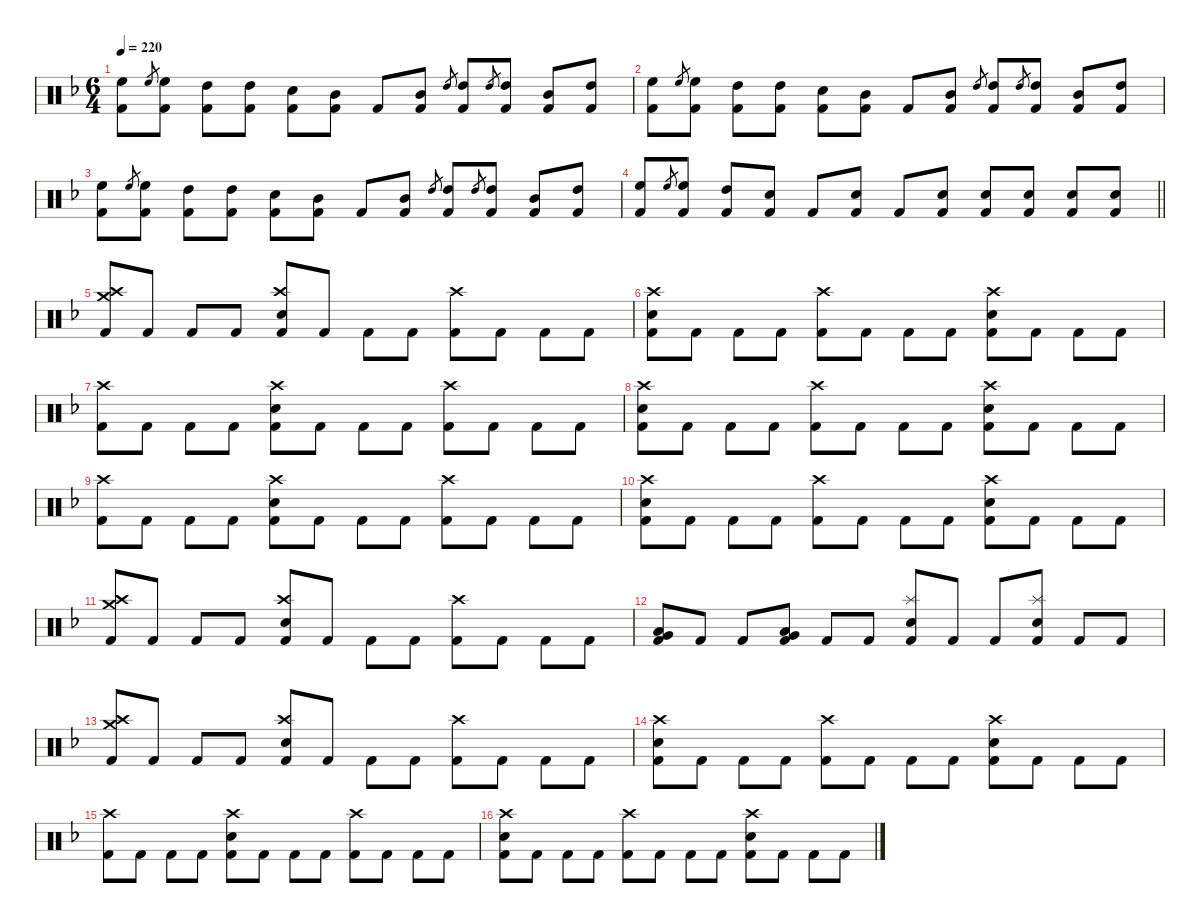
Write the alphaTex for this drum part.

\hideDynamics
\bracketExtendMode nobrackets
\singleTrackTrackNamePolicy hidden
\multiTrackTrackNamePolicy hidden
\firstSystemTrackNameMode fullname
\firstSystemTrackNameOrientation horizontal
\otherSystemsTrackNameOrientation horizontal
\track ("Drumkit" "Drums") {instrument percussion}
\staff {score}
\articulation defaults
\ts (6 4)
\tempo 220
\clef neutral
\ks dminor
("High Floor Tom (hit)"{acc forcenatural} "Kick (hit) 2"{acc forcenatural}).8{dy f beam Down} "High Floor Tom (hit)"{acc forcenatural}.8{gr dy mf beam Up} ("High Floor Tom (hit)"{acc forcenatural} "Kick (hit) 2"{acc forcenatural}).8{dy f beam Down} ("High Tom (hit)"{acc forcenatural} "Kick (hit) 2"{acc forcenatural}).8{beam Down} ("High Tom (hit)"{acc forcenatural} "Kick (hit) 2"{acc forcenatural}).8{beam Down} ("Snare (hit) 2"{acc forcenatural} "Kick (hit) 2"{acc forcenatural}).8{beam Down} ("Mid Tom (hit)"{acc forcenatural} "Kick (hit) 2"{acc forcenatural}).8{beam Down} "Kick (hit) 2"{acc forcenatural}.8{beam Up} ("Mid Tom (hit)"{acc forcenatural} "Kick (hit) 2"{acc forcenatural}).8{beam Up} "High Tom (hit)"{acc forcenatural}.8{gr dy mf beam Up} ("High Tom (hit)"{acc forcenatural} "Kick (hit) 2"{acc forcenatural}).8{dy f beam Up} "High Tom (hit)"{acc forcenatural}.8{gr dy mf beam Up} ("High Tom (hit)"{acc forcenatural} "Kick (hit) 2"{acc forcenatural}).8{dy f beam Up} ("Mid Tom (hit)"{acc forcenatural} "Kick (hit) 2"{acc forcenatural}).8{beam Up} ("High Tom (hit)"{acc forcenatural} "Kick (hit) 2"{acc forcenatural}).8{beam Up} |
("High Floor Tom (hit)"{acc forcenatural} "Kick (hit) 2"{acc forcenatural}).8{beam Down} "High Floor Tom (hit)"{acc forcenatural}.8{gr dy mf beam Up} ("High Floor Tom (hit)"{acc forcenatural} "Kick (hit) 2"{acc forcenatural}).8{dy f beam Down} ("High Tom (hit)"{acc forcenatural} "Kick (hit) 2"{acc forcenatural}).8{beam Down} ("High Tom (hit)"{acc forcenatural} "Kick (hit) 2"{acc forcenatural}).8{beam Down} ("Snare (hit) 2"{acc forcenatural} "Kick (hit) 2"{acc forcenatural}).8{beam Down} ("Mid Tom (hit)"{acc forcenatural} "Kick (hit) 2"{acc forcenatural}).8{beam Down} "Kick (hit) 2"{acc forcenatural}.8{beam Up} ("Mid Tom (hit)"{acc forcenatural} "Kick (hit) 2"{acc forcenatural}).8{beam Up} "High Tom (hit)"{acc forcenatural}.8{gr dy mf beam Up} ("High Tom (hit)"{acc forcenatural} "Kick (hit) 2"{acc forcenatural}).8{dy f beam Up} "High Tom (hit)"{acc forcenatural}.8{gr dy mf beam Up} ("High Tom (hit)"{acc forcenatural} "Kick (hit) 2"{acc forcenatural}).8{dy f beam Up} ("Mid Tom (hit)"{acc forcenatural} "Kick (hit) 2"{acc forcenatural}).8{beam Up} ("High Tom (hit)"{acc forcenatural} "Kick (hit) 2"{acc forcenatural}).8{beam Up} |
("High Floor Tom (hit)"{acc forcenatural} "Kick (hit) 2"{acc forcenatural}).8{beam Down} "High Floor Tom (hit)"{acc forcenatural}.8{gr dy mf beam Up} ("High Floor Tom (hit)"{acc forcenatural} "Kick (hit) 2"{acc forcenatural}).8{dy f beam Down} ("High Tom (hit)"{acc forcenatural} "Kick (hit) 2"{acc forcenatural}).8{beam Down} ("High Tom (hit)"{acc forcenatural} "Kick (hit) 2"{acc forcenatural}).8{beam Down} ("Snare (hit) 2"{acc forcenatural} "Kick (hit) 2"{acc forcenatural}).8{beam Down} ("Mid Tom (hit)"{acc forcenatural} "Kick (hit) 2"{acc forcenatural}).8{beam Down} "Kick (hit) 2"{acc forcenatural}.8{beam Up} ("Mid Tom (hit)"{acc forcenatural} "Kick (hit) 2"{acc forcenatural}).8{beam Up} "High Tom (hit)"{acc forcenatural}.8{gr dy mf beam Up} ("High Tom (hit)"{acc forcenatural} "Kick (hit) 2"{acc forcenatural}).8{dy f beam Up} "High Tom (hit)"{acc forcenatural}.8{gr dy mf beam Up} ("High Tom (hit)"{acc forcenatural} "Kick (hit) 2"{acc forcenatural}).8{dy f beam Up} ("Mid Tom (hit)"{acc forcenatural} "Kick (hit) 2"{acc forcenatural}).8{beam Up} ("High Tom (hit)"{acc forcenatural} "Kick (hit) 2"{acc forcenatural}).8{beam Up} |
\barLineRight lightlight
("High Floor Tom (hit)"{acc forcenatural} "Kick (hit) 2"{acc forcenatural}).8{beam Up} "High Floor Tom (hit)"{acc forcenatural}.8{gr dy mf beam Up} ("High Floor Tom (hit)"{acc forcenatural} "Kick (hit) 2"{acc forcenatural}).8{dy f beam Up} ("High Tom (hit)"{acc forcenatural} "Kick (hit) 2"{acc forcenatural}).8{beam Up} ("Snare (hit) 2"{acc forcenatural} "Kick (hit) 2"{acc forcenatural}).8{beam Up} "Kick (hit) 2"{acc forcenatural}.8{beam Up} ("Snare (hit) 2"{acc forcenatural} "Kick (hit) 2"{acc forcenatural}).8{beam Up} "Kick (hit) 2"{acc forcenatural}.8{beam Up} ("Snare (hit) 2"{acc forcenatural} "Kick (hit) 2"{acc forcenatural}).8{beam Up} ("Snare (hit) 2"{acc forcenatural} "Kick (hit) 2"{acc forcenatural}).8{beam Up} ("Snare (hit) 2"{acc forcenatural} "Kick (hit) 2"{acc forcenatural}).8{beam Up} ("Snare (hit) 2"{acc forcenatural} "Kick (hit) 2"{acc forcenatural}).8{beam Up} ("Snare (hit) 2"{acc forcenatural} "Kick (hit) 2"{acc forcenatural}).8{beam Up} |
("Crash medium (hit)"{acc forcenatural} "Crash high (hit)"{acc forcenatural} "Kick (hit) 2"{acc forcenatural}).8{beam Up} "Kick (hit) 2"{acc forcenatural}.8{beam Up} "Kick (hit) 2"{acc forcenatural}.8{beam Up} "Kick (hit) 2"{acc forcenatural}.8{beam Up} ("Crash high (hit)"{acc forcenatural} "Snare (hit) 2"{acc forcenatural} "Kick (hit) 2"{acc forcenatural}).8{beam Up} "Kick (hit) 2"{acc forcenatural}.8{beam Up} "Kick (hit) 2"{acc forcenatural}.8{beam Down} "Kick (hit) 2"{acc forcenatural}.8{beam Down} ("Crash high (hit)"{acc forcenatural} "Kick (hit) 2"{acc forcenatural}).8{beam Down} "Kick (hit) 2"{acc forcenatural}.8{beam Down} "Kick (hit) 2"{acc forcenatural}.8{beam Down} "Kick (hit) 2"{acc forcenatural}.8{beam Down} |
("Crash high (hit)"{acc forcenatural} "Snare (hit) 2"{acc forcenatural} "Kick (hit) 2"{acc forcenatural}).8{beam Down} "Kick (hit) 2"{acc forcenatural}.8{beam Down} "Kick (hit) 2"{acc forcenatural}.8{beam Down} "Kick (hit) 2"{acc forcenatural}.8{beam Down} ("Crash high (hit)"{acc forcenatural} "Kick (hit) 2"{acc forcenatural}).8{beam Down} "Kick (hit) 2"{acc forcenatural}.8{beam Down} "Kick (hit) 2"{acc forcenatural}.8{beam Down} "Kick (hit) 2"{acc forcenatural}.8{beam Down} ("Crash high (hit)"{acc forcenatural} "Snare (hit) 2"{acc forcenatural} "Kick (hit) 2"{acc forcenatural}).8{beam Down} "Kick (hit) 2"{acc forcenatural}.8{beam Down} "Kick (hit) 2"{acc forcenatural}.8{beam Down} "Kick (hit) 2"{acc forcenatural}.8{beam Down} |
("Crash high (hit)"{acc forcenatural} "Kick (hit) 2"{acc forcenatural}).8{beam Down} "Kick (hit) 2"{acc forcenatural}.8{beam Down} "Kick (hit) 2"{acc forcenatural}.8{beam Down} "Kick (hit) 2"{acc forcenatural}.8{beam Down} ("Crash high (hit)"{acc forcenatural} "Snare (hit) 2"{acc forcenatural} "Kick (hit) 2"{acc forcenatural}).8{beam Down} "Kick (hit) 2"{acc forcenatural}.8{beam Down} "Kick (hit) 2"{acc forcenatural}.8{beam Down} "Kick (hit) 2"{acc forcenatural}.8{beam Down} ("Crash high (hit)"{acc forcenatural} "Kick (hit) 2"{acc forcenatural}).8{beam Down} "Kick (hit) 2"{acc forcenatural}.8{beam Down} "Kick (hit) 2"{acc forcenatural}.8{beam Down} "Kick (hit) 2"{acc forcenatural}.8{beam Down} |
("Crash high (hit)"{acc forcenatural} "Snare (hit) 2"{acc forcenatural} "Kick (hit) 2"{acc forcenatural}).8{beam Down} "Kick (hit) 2"{acc forcenatural}.8{beam Down} "Kick (hit) 2"{acc forcenatural}.8{beam Down} "Kick (hit) 2"{acc forcenatural}.8{beam Down} ("Crash high (hit)"{acc forcenatural} "Kick (hit) 2"{acc forcenatural}).8{beam Down} "Kick (hit) 2"{acc forcenatural}.8{beam Down} "Kick (hit) 2"{acc forcenatural}.8{beam Down} "Kick (hit) 2"{acc forcenatural}.8{beam Down} ("Crash high (hit)"{acc forcenatural} "Snare (hit) 2"{acc forcenatural} "Kick (hit) 2"{acc forcenatural}).8{beam Down} "Kick (hit) 2"{acc forcenatural}.8{beam Down} "Kick (hit) 2"{acc forcenatural}.8{beam Down} "Kick (hit) 2"{acc forcenatural}.8{beam Down} |
("Crash high (hit)"{acc forcenatural} "Kick (hit) 2"{acc forcenatural}).8{beam Down} "Kick (hit) 2"{acc forcenatural}.8{beam Down} "Kick (hit) 2"{acc forcenatural}.8{beam Down} "Kick (hit) 2"{acc forcenatural}.8{beam Down} ("Crash high (hit)"{acc forcenatural} "Snare (hit) 2"{acc forcenatural} "Kick (hit) 2"{acc forcenatural}).8{beam Down} "Kick (hit) 2"{acc forcenatural}.8{beam Down} "Kick (hit) 2"{acc forcenatural}.8{beam Down} "Kick (hit) 2"{acc forcenatural}.8{beam Down} ("Crash high (hit)"{acc forcenatural} "Kick (hit) 2"{acc forcenatural}).8{beam Down} "Kick (hit) 2"{acc forcenatural}.8{beam Down} "Kick (hit) 2"{acc forcenatural}.8{beam Down} "Kick (hit) 2"{acc forcenatural}.8{beam Down} |
("Crash high (hit)"{acc forcenatural} "Snare (hit) 2"{acc forcenatural} "Kick (hit) 2"{acc forcenatural}).8{beam Down} "Kick (hit) 2"{acc forcenatural}.8{beam Down} "Kick (hit) 2"{acc forcenatural}.8{beam Down} "Kick (hit) 2"{acc forcenatural}.8{beam Down} ("Crash high (hit)"{acc forcenatural} "Kick (hit) 2"{acc forcenatural}).8{beam Down} "Kick (hit) 2"{acc forcenatural}.8{beam Down} "Kick (hit) 2"{acc forcenatural}.8{beam Down} "Kick (hit) 2"{acc forcenatural}.8{beam Down} ("Crash high (hit)"{acc forcenatural} "Snare (hit) 2"{acc forcenatural} "Kick (hit) 2"{acc forcenatural}).8{beam Down} "Kick (hit) 2"{acc forcenatural}.8{beam Down} "Kick (hit) 2"{acc forcenatural}.8{beam Down} "Kick (hit) 2"{acc forcenatural}.8{beam Down} |
("Crash medium (hit)"{acc forcenatural} "Crash high (hit)"{acc forcenatural} "Kick (hit) 2"{acc forcenatural}).8{beam Up} "Kick (hit) 2"{acc forcenatural}.8{beam Up} "Kick (hit) 2"{acc forcenatural}.8{beam Up} "Kick (hit) 2"{acc forcenatural}.8{beam Up} ("Crash high (hit)"{acc forcenatural} "Snare (hit) 2"{acc forcenatural} "Kick (hit) 2"{acc forcenatural}).8{beam Up} "Kick (hit) 2"{acc forcenatural}.8{beam Up} "Kick (hit) 2"{acc forcenatural}.8{beam Down} "Kick (hit) 2"{acc forcenatural}.8{beam Down} ("Crash high (hit)"{acc forcenatural} "Kick (hit) 2"{acc forcenatural}).8{beam Down} "Kick (hit) 2"{acc forcenatural}.8{beam Down} "Kick (hit) 2"{acc forcenatural}.8{beam Down} "Kick (hit) 2"{acc forcenatural}.8{beam Down} |
("Very Low Tom (hit)"{acc forcenatural} "Low Tom (hit)"{acc forcenatural} "Kick (hit) 2"{acc forcenatural}).8{beam Up} "Kick (hit) 2"{acc forcenatural}.8{beam Up} "Kick (hit) 2"{acc forcenatural}.8{beam Up} ("Very Low Tom (hit)"{acc forcenatural} "Low Tom (hit)"{acc forcenatural} "Kick (hit) 2"{acc forcenatural}).8{beam Up} "Kick (hit) 2"{acc forcenatural}.8{beam Up} "Kick (hit) 2"{acc forcenatural}.8{beam Up} ("Splash (hit)"{acc forcenatural} "Snare (hit) 2"{acc forcenatural} "Kick (hit) 2"{acc forcenatural}).8{beam Up} "Kick (hit) 2"{acc forcenatural}.8{beam Up} "Kick (hit) 2"{acc forcenatural}.8{beam Up} ("Splash (hit)"{acc forcenatural} "Snare (hit) 2"{acc forcenatural} "Kick (hit) 2"{acc forcenatural}).8{beam Up} "Kick (hit) 2"{acc forcenatural}.8{beam Up} "Kick (hit) 2"{acc forcenatural}.8{beam Up} |
("Crash medium (hit)"{acc forcenatural} "Crash high (hit)"{acc forcenatural} "Kick (hit) 2"{acc forcenatural}).8{beam Up} "Kick (hit) 2"{acc forcenatural}.8{beam Up} "Kick (hit) 2"{acc forcenatural}.8{beam Up} "Kick (hit) 2"{acc forcenatural}.8{beam Up} ("Crash high (hit)"{acc forcenatural} "Snare (hit) 2"{acc forcenatural} "Kick (hit) 2"{acc forcenatural}).8{beam Up} "Kick (hit) 2"{acc forcenatural}.8{beam Up} "Kick (hit) 2"{acc forcenatural}.8{beam Down} "Kick (hit) 2"{acc forcenatural}.8{beam Down} ("Crash high (hit)"{acc forcenatural} "Kick (hit) 2"{acc forcenatural}).8{beam Down} "Kick (hit) 2"{acc forcenatural}.8{beam Down} "Kick (hit) 2"{acc forcenatural}.8{beam Down} "Kick (hit) 2"{acc forcenatural}.8{beam Down} |
("Crash high (hit)"{acc forcenatural} "Snare (hit) 2"{acc forcenatural} "Kick (hit) 2"{acc forcenatural}).8{beam Down} "Kick (hit) 2"{acc forcenatural}.8{beam Down} "Kick (hit) 2"{acc forcenatural}.8{beam Down} "Kick (hit) 2"{acc forcenatural}.8{beam Down} ("Crash high (hit)"{acc forcenatural} "Kick (hit) 2"{acc forcenatural}).8{beam Down} "Kick (hit) 2"{acc forcenatural}.8{beam Down} "Kick (hit) 2"{acc forcenatural}.8{beam Down} "Kick (hit) 2"{acc forcenatural}.8{beam Down} ("Crash high (hit)"{acc forcenatural} "Snare (hit) 2"{acc forcenatural} "Kick (hit) 2"{acc forcenatural}).8{beam Down} "Kick (hit) 2"{acc forcenatural}.8{beam Down} "Kick (hit) 2"{acc forcenatural}.8{beam Down} "Kick (hit) 2"{acc forcenatural}.8{beam Down} |
("Crash high (hit)"{acc forcenatural} "Kick (hit) 2"{acc forcenatural}).8{beam Down} "Kick (hit) 2"{acc forcenatural}.8{beam Down} "Kick (hit) 2"{acc forcenatural}.8{beam Down} "Kick (hit) 2"{acc forcenatural}.8{beam Down} ("Crash high (hit)"{acc forcenatural} "Snare (hit) 2"{acc forcenatural} "Kick (hit) 2"{acc forcenatural}).8{beam Down} "Kick (hit) 2"{acc forcenatural}.8{beam Down} "Kick (hit) 2"{acc forcenatural}.8{beam Down} "Kick (hit) 2"{acc forcenatural}.8{beam Down} ("Crash high (hit)"{acc forcenatural} "Kick (hit) 2"{acc forcenatural}).8{beam Down} "Kick (hit) 2"{acc forcenatural}.8{beam Down} "Kick (hit) 2"{acc forcenatural}.8{beam Down} "Kick (hit) 2"{acc forcenatural}.8{beam Down} |
("Crash high (hit)"{acc forcenatural} "Snare (hit) 2"{acc forcenatural} "Kick (hit) 2"{acc forcenatural}).8{beam Down} "Kick (hit) 2"{acc forcenatural}.8{beam Down} "Kick (hit) 2"{acc forcenatural}.8{beam Down} "Kick (hit) 2"{acc forcenatural}.8{beam Down} ("Crash high (hit)"{acc forcenatural} "Kick (hit) 2"{acc forcenatural}).8{beam Down} "Kick (hit) 2"{acc forcenatural}.8{beam Down} "Kick (hit) 2"{acc forcenatural}.8{beam Down} "Kick (hit) 2"{acc forcenatural}.8{beam Down} ("Crash high (hit)"{acc forcenatural} "Snare (hit) 2"{acc forcenatural} "Kick (hit) 2"{acc forcenatural}).8{beam Down} "Kick (hit) 2"{acc forcenatural}.8{beam Down} "Kick (hit) 2"{acc forcenatural}.8{beam Down} "Kick (hit) 2"{acc forcenatural}.8{beam Down}
